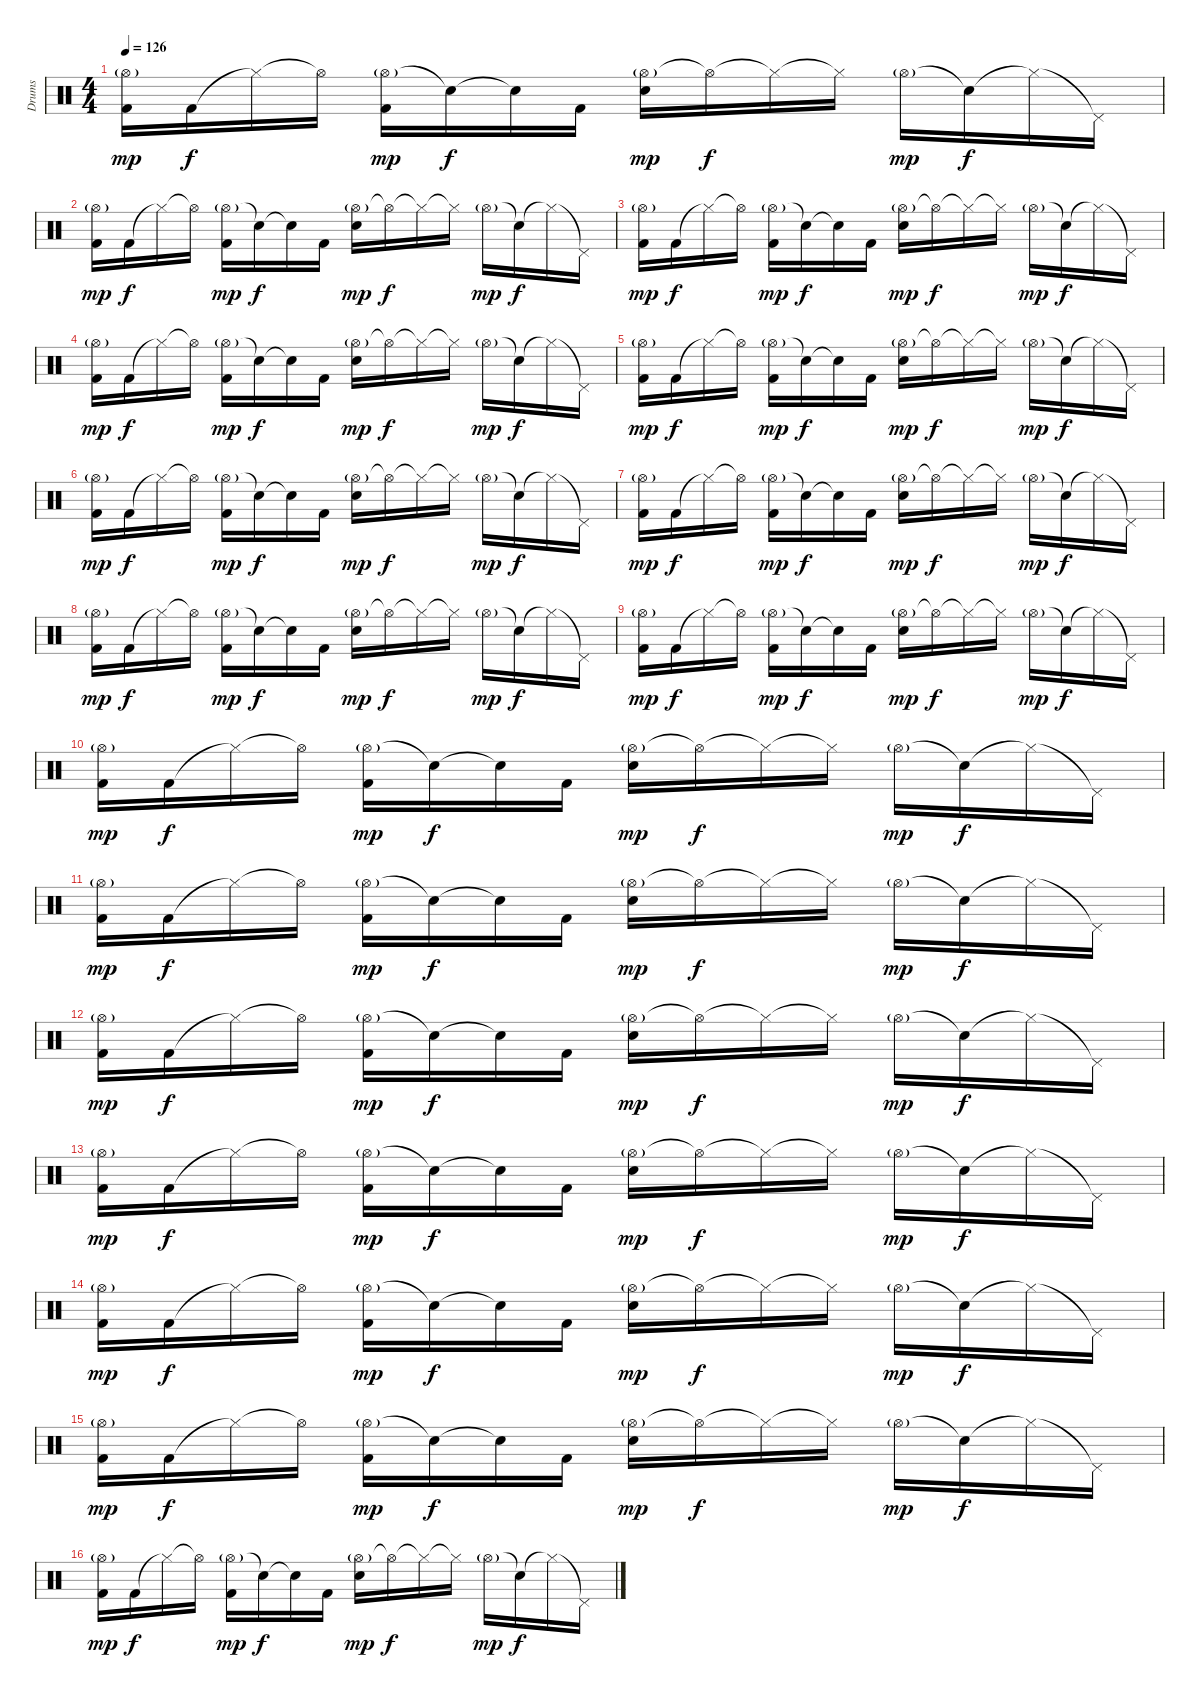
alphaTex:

\track ("Drums" "Drums") {instrument percussion}
\staff {score}
\articulation defaults
\ts (4 4)
\tempo 126
\clef neutral
\ks c
("Hi-Hat (open)"{g} "Kick (hit) 2").16{dy mp} "Kick (hit) 2".16{dy f} "Hi-Hat (closed)"{t}.16 "Hi-Hat (open)"{t}.16 ("Hi-Hat (open)"{g} "Kick (hit) 2").16{dy mp} "Snare (hit)"{t}.16{dy f} "Snare (hit)"{t}.16 "Kick (hit) 2".16 ("Hi-Hat (open)"{g} "Electric Snare (hit)").16{dy mp} "Hi-Hat (open)"{t}.16{dy f} "Hi-Hat (closed)"{t}.16 "Hi-Hat (closed)"{t}.16 "Hi-Hat (open)"{g}.16{dy mp} "Snare (hit)"{t}.16{dy f} "Hi-Hat (closed)"{t}.16 "Pedal Hi-Hat (hit)"{t}.16 |
("Hi-Hat (open)"{g} "Kick (hit) 2").16{dy mp} "Kick (hit) 2".16{dy f} "Hi-Hat (closed)"{t}.16 "Hi-Hat (open)"{t}.16 ("Hi-Hat (open)"{g} "Kick (hit) 2").16{dy mp} "Snare (hit)"{t}.16{dy f} "Snare (hit)"{t}.16 "Kick (hit) 2".16 ("Hi-Hat (open)"{g} "Electric Snare (hit)").16{dy mp} "Hi-Hat (open)"{t}.16{dy f} "Hi-Hat (closed)"{t}.16 "Hi-Hat (closed)"{t}.16 "Hi-Hat (open)"{g}.16{dy mp} "Snare (hit)"{t}.16{dy f} "Hi-Hat (closed)"{t}.16 "Pedal Hi-Hat (hit)"{t}.16 |
("Hi-Hat (open)"{g} "Kick (hit) 2").16{dy mp} "Kick (hit) 2".16{dy f} "Hi-Hat (closed)"{t}.16 "Hi-Hat (open)"{t}.16 ("Hi-Hat (open)"{g} "Kick (hit) 2").16{dy mp} "Snare (hit)"{t}.16{dy f} "Snare (hit)"{t}.16 "Kick (hit) 2".16 ("Hi-Hat (open)"{g} "Electric Snare (hit)").16{dy mp} "Hi-Hat (open)"{t}.16{dy f} "Hi-Hat (closed)"{t}.16 "Hi-Hat (closed)"{t}.16 "Hi-Hat (open)"{g}.16{dy mp} "Snare (hit)"{t}.16{dy f} "Hi-Hat (closed)"{t}.16 "Pedal Hi-Hat (hit)"{t}.16 |
("Hi-Hat (open)"{g} "Kick (hit) 2").16{dy mp} "Kick (hit) 2".16{dy f} "Hi-Hat (closed)"{t}.16 "Hi-Hat (open)"{t}.16 ("Hi-Hat (open)"{g} "Kick (hit) 2").16{dy mp} "Snare (hit)"{t}.16{dy f} "Snare (hit)"{t}.16 "Kick (hit) 2".16 ("Hi-Hat (open)"{g} "Electric Snare (hit)").16{dy mp} "Hi-Hat (open)"{t}.16{dy f} "Hi-Hat (closed)"{t}.16 "Hi-Hat (closed)"{t}.16 "Hi-Hat (open)"{g}.16{dy mp} "Snare (hit)"{t}.16{dy f} "Hi-Hat (closed)"{t}.16 "Pedal Hi-Hat (hit)"{t}.16 |
("Hi-Hat (open)"{g} "Kick (hit) 2").16{dy mp} "Kick (hit) 2".16{dy f} "Hi-Hat (closed)"{t}.16 "Hi-Hat (open)"{t}.16 ("Hi-Hat (open)"{g} "Kick (hit) 2").16{dy mp} "Snare (hit)"{t}.16{dy f} "Snare (hit)"{t}.16 "Kick (hit) 2".16 ("Hi-Hat (open)"{g} "Electric Snare (hit)").16{dy mp} "Hi-Hat (open)"{t}.16{dy f} "Hi-Hat (closed)"{t}.16 "Hi-Hat (closed)"{t}.16 "Hi-Hat (open)"{g}.16{dy mp} "Snare (hit)"{t}.16{dy f} "Hi-Hat (closed)"{t}.16 "Pedal Hi-Hat (hit)"{t}.16 |
("Hi-Hat (open)"{g} "Kick (hit) 2").16{dy mp} "Kick (hit) 2".16{dy f} "Hi-Hat (closed)"{t}.16 "Hi-Hat (open)"{t}.16 ("Hi-Hat (open)"{g} "Kick (hit) 2").16{dy mp} "Snare (hit)"{t}.16{dy f} "Snare (hit)"{t}.16 "Kick (hit) 2".16 ("Hi-Hat (open)"{g} "Electric Snare (hit)").16{dy mp} "Hi-Hat (open)"{t}.16{dy f} "Hi-Hat (closed)"{t}.16 "Hi-Hat (closed)"{t}.16 "Hi-Hat (open)"{g}.16{dy mp} "Snare (hit)"{t}.16{dy f} "Hi-Hat (closed)"{t}.16 "Pedal Hi-Hat (hit)"{t}.16 |
("Hi-Hat (open)"{g} "Kick (hit) 2").16{dy mp} "Kick (hit) 2".16{dy f} "Hi-Hat (closed)"{t}.16 "Hi-Hat (open)"{t}.16 ("Hi-Hat (open)"{g} "Kick (hit) 2").16{dy mp} "Snare (hit)"{t}.16{dy f} "Snare (hit)"{t}.16 "Kick (hit) 2".16 ("Hi-Hat (open)"{g} "Electric Snare (hit)").16{dy mp} "Hi-Hat (open)"{t}.16{dy f} "Hi-Hat (closed)"{t}.16 "Hi-Hat (closed)"{t}.16 "Hi-Hat (open)"{g}.16{dy mp} "Snare (hit)"{t}.16{dy f} "Hi-Hat (closed)"{t}.16 "Pedal Hi-Hat (hit)"{t}.16 |
("Hi-Hat (open)"{g} "Kick (hit) 2").16{dy mp} "Kick (hit) 2".16{dy f} "Hi-Hat (closed)"{t}.16 "Hi-Hat (open)"{t}.16 ("Hi-Hat (open)"{g} "Kick (hit) 2").16{dy mp} "Snare (hit)"{t}.16{dy f} "Snare (hit)"{t}.16 "Kick (hit) 2".16 ("Hi-Hat (open)"{g} "Electric Snare (hit)").16{dy mp} "Hi-Hat (open)"{t}.16{dy f} "Hi-Hat (closed)"{t}.16 "Hi-Hat (closed)"{t}.16 "Hi-Hat (open)"{g}.16{dy mp} "Snare (hit)"{t}.16{dy f} "Hi-Hat (closed)"{t}.16 "Pedal Hi-Hat (hit)"{t}.16 |
("Hi-Hat (open)"{g} "Kick (hit) 2").16{dy mp} "Kick (hit) 2".16{dy f} "Hi-Hat (closed)"{t}.16 "Hi-Hat (open)"{t}.16 ("Hi-Hat (open)"{g} "Kick (hit) 2").16{dy mp} "Snare (hit)"{t}.16{dy f} "Snare (hit)"{t}.16 "Kick (hit) 2".16 ("Hi-Hat (open)"{g} "Electric Snare (hit)").16{dy mp} "Hi-Hat (open)"{t}.16{dy f} "Hi-Hat (closed)"{t}.16 "Hi-Hat (closed)"{t}.16 "Hi-Hat (open)"{g}.16{dy mp} "Snare (hit)"{t}.16{dy f} "Hi-Hat (closed)"{t}.16 "Pedal Hi-Hat (hit)"{t}.16 |
("Hi-Hat (open)"{g} "Kick (hit) 2").16{dy mp} "Kick (hit) 2".16{dy f} "Hi-Hat (closed)"{t}.16 "Hi-Hat (open)"{t}.16 ("Hi-Hat (open)"{g} "Kick (hit) 2").16{dy mp} "Snare (hit)"{t}.16{dy f} "Snare (hit)"{t}.16 "Kick (hit) 2".16 ("Hi-Hat (open)"{g} "Electric Snare (hit)").16{dy mp} "Hi-Hat (open)"{t}.16{dy f} "Hi-Hat (closed)"{t}.16 "Hi-Hat (closed)"{t}.16 "Hi-Hat (open)"{g}.16{dy mp} "Snare (hit)"{t}.16{dy f} "Hi-Hat (closed)"{t}.16 "Pedal Hi-Hat (hit)"{t}.16 |
("Hi-Hat (open)"{g} "Kick (hit) 2").16{dy mp} "Kick (hit) 2".16{dy f} "Hi-Hat (closed)"{t}.16 "Hi-Hat (open)"{t}.16 ("Hi-Hat (open)"{g} "Kick (hit) 2").16{dy mp} "Snare (hit)"{t}.16{dy f} "Snare (hit)"{t}.16 "Kick (hit) 2".16 ("Hi-Hat (open)"{g} "Electric Snare (hit)").16{dy mp} "Hi-Hat (open)"{t}.16{dy f} "Hi-Hat (closed)"{t}.16 "Hi-Hat (closed)"{t}.16 "Hi-Hat (open)"{g}.16{dy mp} "Snare (hit)"{t}.16{dy f} "Hi-Hat (closed)"{t}.16 "Pedal Hi-Hat (hit)"{t}.16 |
("Hi-Hat (open)"{g} "Kick (hit) 2").16{dy mp} "Kick (hit) 2".16{dy f} "Hi-Hat (closed)"{t}.16 "Hi-Hat (open)"{t}.16 ("Hi-Hat (open)"{g} "Kick (hit) 2").16{dy mp} "Snare (hit)"{t}.16{dy f} "Snare (hit)"{t}.16 "Kick (hit) 2".16 ("Hi-Hat (open)"{g} "Electric Snare (hit)").16{dy mp} "Hi-Hat (open)"{t}.16{dy f} "Hi-Hat (closed)"{t}.16 "Hi-Hat (closed)"{t}.16 "Hi-Hat (open)"{g}.16{dy mp} "Snare (hit)"{t}.16{dy f} "Hi-Hat (closed)"{t}.16 "Pedal Hi-Hat (hit)"{t}.16 |
("Hi-Hat (open)"{g} "Kick (hit) 2").16{dy mp} "Kick (hit) 2".16{dy f} "Hi-Hat (closed)"{t}.16 "Hi-Hat (open)"{t}.16 ("Hi-Hat (open)"{g} "Kick (hit) 2").16{dy mp} "Snare (hit)"{t}.16{dy f} "Snare (hit)"{t}.16 "Kick (hit) 2".16 ("Hi-Hat (open)"{g} "Electric Snare (hit)").16{dy mp} "Hi-Hat (open)"{t}.16{dy f} "Hi-Hat (closed)"{t}.16 "Hi-Hat (closed)"{t}.16 "Hi-Hat (open)"{g}.16{dy mp} "Snare (hit)"{t}.16{dy f} "Hi-Hat (closed)"{t}.16 "Pedal Hi-Hat (hit)"{t}.16 |
("Hi-Hat (open)"{g} "Kick (hit) 2").16{dy mp} "Kick (hit) 2".16{dy f} "Hi-Hat (closed)"{t}.16 "Hi-Hat (open)"{t}.16 ("Hi-Hat (open)"{g} "Kick (hit) 2").16{dy mp} "Snare (hit)"{t}.16{dy f} "Snare (hit)"{t}.16 "Kick (hit) 2".16 ("Hi-Hat (open)"{g} "Electric Snare (hit)").16{dy mp} "Hi-Hat (open)"{t}.16{dy f} "Hi-Hat (closed)"{t}.16 "Hi-Hat (closed)"{t}.16 "Hi-Hat (open)"{g}.16{dy mp} "Snare (hit)"{t}.16{dy f} "Hi-Hat (closed)"{t}.16 "Pedal Hi-Hat (hit)"{t}.16 |
("Hi-Hat (open)"{g} "Kick (hit) 2").16{dy mp} "Kick (hit) 2".16{dy f} "Hi-Hat (closed)"{t}.16 "Hi-Hat (open)"{t}.16 ("Hi-Hat (open)"{g} "Kick (hit) 2").16{dy mp} "Snare (hit)"{t}.16{dy f} "Snare (hit)"{t}.16 "Kick (hit) 2".16 ("Hi-Hat (open)"{g} "Electric Snare (hit)").16{dy mp} "Hi-Hat (open)"{t}.16{dy f} "Hi-Hat (closed)"{t}.16 "Hi-Hat (closed)"{t}.16 "Hi-Hat (open)"{g}.16{dy mp} "Snare (hit)"{t}.16{dy f} "Hi-Hat (closed)"{t}.16 "Pedal Hi-Hat (hit)"{t}.16 |
("Hi-Hat (open)"{g} "Kick (hit) 2").16{dy mp} "Kick (hit) 2".16{dy f} "Hi-Hat (closed)"{t}.16 "Hi-Hat (open)"{t}.16 ("Hi-Hat (open)"{g} "Kick (hit) 2").16{dy mp} "Snare (hit)"{t}.16{dy f} "Snare (hit)"{t}.16 "Kick (hit) 2".16 ("Hi-Hat (open)"{g} "Electric Snare (hit)").16{dy mp} "Hi-Hat (open)"{t}.16{dy f} "Hi-Hat (closed)"{t}.16 "Hi-Hat (closed)"{t}.16 "Hi-Hat (open)"{g}.16{dy mp} "Snare (hit)"{t}.16{dy f} "Hi-Hat (closed)"{t}.16 "Pedal Hi-Hat (hit)"{t}.16
